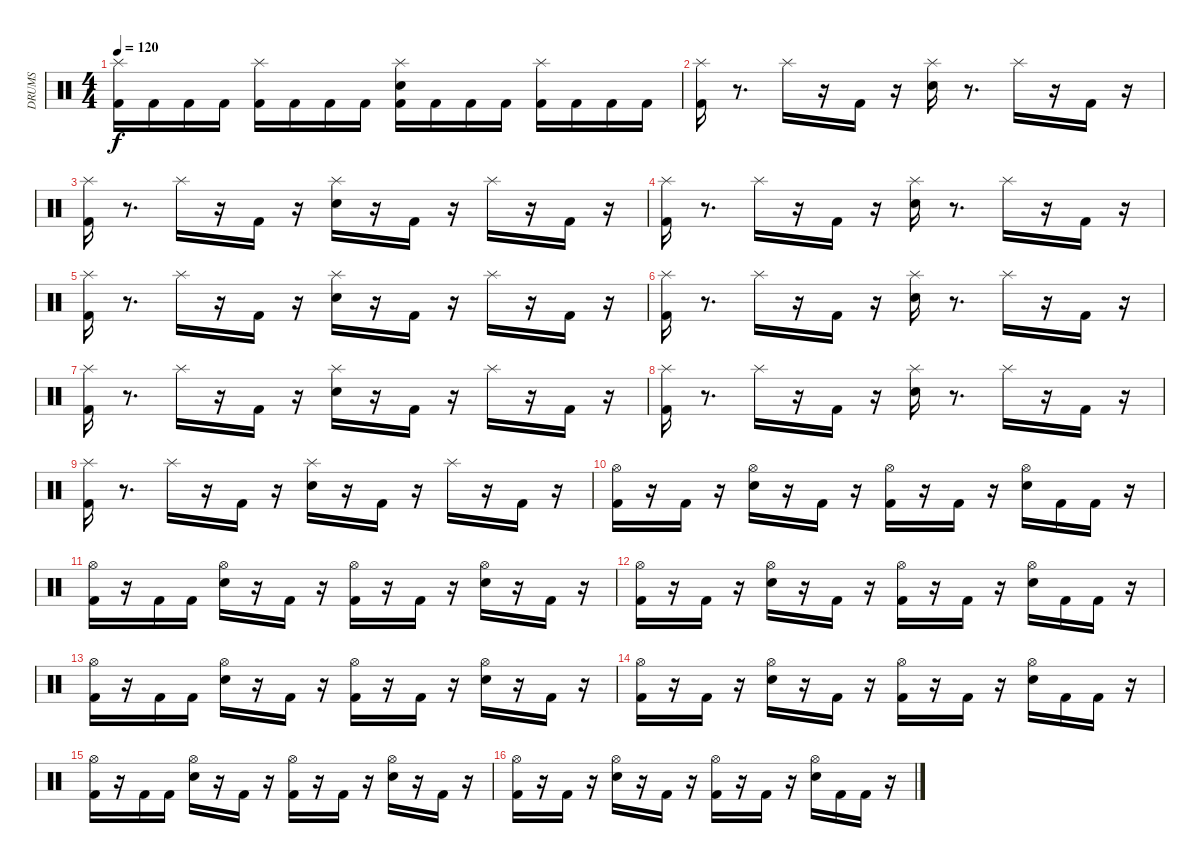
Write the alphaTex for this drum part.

\track ("DRUMS" "DRUMS") {instrument percussion}
\staff {score}
\articulation defaults
\ts (4 4)
\tempo 120
\clef neutral
\ks c
("Splash (hit)" "Kick (hit) 2").16{dy f} "Kick (hit) 2".16 "Kick (hit) 2".16 "Kick (hit) 2".16 ("Splash (hit)" "Kick (hit) 2").16 "Kick (hit) 2".16 "Kick (hit) 2".16 "Kick (hit) 2".16 ("Splash (hit)" "Electric Snare (hit)" "Kick (hit) 2").16 "Kick (hit) 2".16 "Kick (hit) 2".16 "Kick (hit) 2".16 ("Splash (hit)" "Kick (hit) 2").16 "Kick (hit) 2".16 "Kick (hit) 2".16 "Kick (hit) 2".16 |
("Splash (hit)" "Kick (hit) 2").16 r.8{d} "Splash (hit)".16 r.16 "Kick (hit) 2".16 r.16 ("Splash (hit)" "Electric Snare (hit)").16 r.8{d} "Splash (hit)".16 r.16 "Kick (hit) 2".16 r.16 |
("Kick (hit) 2" "Splash (hit)").16 r.8{d} "Splash (hit)".16 r.16 "Kick (hit) 2".16 r.16 ("Electric Snare (hit)" "Splash (hit)").16 r.16 "Kick (hit) 2".16 r.16 "Splash (hit)".16 r.16 "Kick (hit) 2".16 r.16 |
("Splash (hit)" "Kick (hit) 2").16 r.8{d} "Splash (hit)".16 r.16 "Kick (hit) 2".16 r.16 ("Splash (hit)" "Electric Snare (hit)").16 r.8{d} "Splash (hit)".16 r.16 "Kick (hit) 2".16 r.16 |
("Kick (hit) 2" "Splash (hit)").16 r.8{d} "Splash (hit)".16 r.16 "Kick (hit) 2".16 r.16 ("Electric Snare (hit)" "Splash (hit)").16 r.16 "Kick (hit) 2".16 r.16 "Splash (hit)".16 r.16 "Kick (hit) 2".16 r.16 |
("Splash (hit)" "Kick (hit) 2").16 r.8{d} "Splash (hit)".16 r.16 "Kick (hit) 2".16 r.16 ("Splash (hit)" "Electric Snare (hit)").16 r.8{d} "Splash (hit)".16 r.16 "Kick (hit) 2".16 r.16 |
("Kick (hit) 2" "Splash (hit)").16 r.8{d} "Splash (hit)".16 r.16 "Kick (hit) 2".16 r.16 ("Electric Snare (hit)" "Splash (hit)").16 r.16 "Kick (hit) 2".16 r.16 "Splash (hit)".16 r.16 "Kick (hit) 2".16 r.16 |
("Splash (hit)" "Kick (hit) 2").16 r.8{d} "Splash (hit)".16 r.16 "Kick (hit) 2".16 r.16 ("Splash (hit)" "Electric Snare (hit)").16 r.8{d} "Splash (hit)".16 r.16 "Kick (hit) 2".16 r.16 |
("Kick (hit) 2" "Splash (hit)").16 r.8{d} "Splash (hit)".16 r.16 "Kick (hit) 2".16 r.16 ("Electric Snare (hit)" "Splash (hit)").16 r.16 "Kick (hit) 2".16 r.16 "Splash (hit)".16 r.16 "Kick (hit) 2".16 r.16 |
("Hi-Hat (open)" "Kick (hit) 2").16 r.16 "Kick (hit) 2".16 r.16 ("Hi-Hat (open)" "Electric Snare (hit)").16 r.16 "Kick (hit) 2".16 r.16 ("Hi-Hat (open)" "Kick (hit) 2").16 r.16 "Kick (hit) 2".16 r.16 ("Hi-Hat (open)" "Electric Snare (hit)").16 "Kick (hit) 2".16 "Kick (hit) 2".16 r.16 |
("Hi-Hat (open)" "Kick (hit) 2").16 r.16 "Kick (hit) 2".16 "Kick (hit) 2".16 ("Hi-Hat (open)" "Electric Snare (hit)").16 r.16 "Kick (hit) 2".16 r.16 ("Hi-Hat (open)" "Kick (hit) 2").16 r.16 "Kick (hit) 2".16 r.16 ("Hi-Hat (open)" "Electric Snare (hit)").16 r.16 "Kick (hit) 2".16 r.16 |
("Hi-Hat (open)" "Kick (hit) 2").16 r.16 "Kick (hit) 2".16 r.16 ("Hi-Hat (open)" "Electric Snare (hit)").16 r.16 "Kick (hit) 2".16 r.16 ("Hi-Hat (open)" "Kick (hit) 2").16 r.16 "Kick (hit) 2".16 r.16 ("Hi-Hat (open)" "Electric Snare (hit)").16 "Kick (hit) 2".16 "Kick (hit) 2".16 r.16 |
("Hi-Hat (open)" "Kick (hit) 2").16 r.16 "Kick (hit) 2".16 "Kick (hit) 2".16 ("Hi-Hat (open)" "Electric Snare (hit)").16 r.16 "Kick (hit) 2".16 r.16 ("Hi-Hat (open)" "Kick (hit) 2").16 r.16 "Kick (hit) 2".16 r.16 ("Hi-Hat (open)" "Electric Snare (hit)").16 r.16 "Kick (hit) 2".16 r.16 |
("Hi-Hat (open)" "Kick (hit) 2").16 r.16 "Kick (hit) 2".16 r.16 ("Hi-Hat (open)" "Electric Snare (hit)").16 r.16 "Kick (hit) 2".16 r.16 ("Hi-Hat (open)" "Kick (hit) 2").16 r.16 "Kick (hit) 2".16 r.16 ("Hi-Hat (open)" "Electric Snare (hit)").16 "Kick (hit) 2".16 "Kick (hit) 2".16 r.16 |
("Hi-Hat (open)" "Kick (hit) 2").16 r.16 "Kick (hit) 2".16 "Kick (hit) 2".16 ("Hi-Hat (open)" "Electric Snare (hit)").16 r.16 "Kick (hit) 2".16 r.16 ("Hi-Hat (open)" "Kick (hit) 2").16 r.16 "Kick (hit) 2".16 r.16 ("Hi-Hat (open)" "Electric Snare (hit)").16 r.16 "Kick (hit) 2".16 r.16 |
("Hi-Hat (open)" "Kick (hit) 2").16 r.16 "Kick (hit) 2".16 r.16 ("Hi-Hat (open)" "Electric Snare (hit)").16 r.16 "Kick (hit) 2".16 r.16 ("Hi-Hat (open)" "Kick (hit) 2").16 r.16 "Kick (hit) 2".16 r.16 ("Hi-Hat (open)" "Electric Snare (hit)").16 "Kick (hit) 2".16 "Kick (hit) 2".16 r.16
